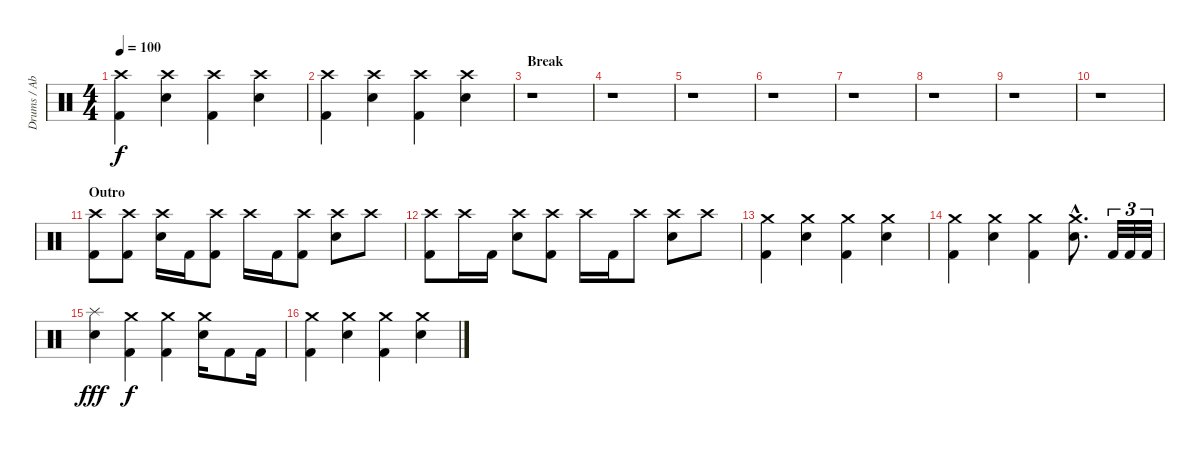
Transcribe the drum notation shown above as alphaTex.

\track ("Drums / Abe Cunningham" "Drums / Ab") {instrument percussion}
\staff {score}
\articulation defaults
\ts (4 4)
\tempo 100
\clef neutral
\ks c
("Crash high (hit)" "Kick (hit) 2").4{dy f} ("Crash high (hit)" "Electric Snare (hit)").4 ("Crash high (hit)" "Kick (hit) 2").4 ("Crash high (hit)" "Electric Snare (hit)").4 |
("Crash high (hit)" "Kick (hit) 2").4 ("Crash high (hit)" "Electric Snare (hit)").4 ("Crash high (hit)" "Kick (hit) 2").4 ("Crash high (hit)" "Electric Snare (hit)").4 |
\section ("" "Break")
r.1 |
r.1 |
r.1 |
r.1 |
r.1 |
r.1 |
r.1 |
r.1 |
\section ("" "Outro")
("Crash high (hit)" "Kick (hit) 2").8 ("Crash high (hit)" "Kick (hit) 2").8 ("Crash high (hit)" "Electric Snare (hit)").16 "Kick (hit) 2".16 ("Crash high (hit)" "Kick (hit) 2").8 "Crash high (hit)".16 "Kick (hit) 2".16 ("Crash high (hit)" "Kick (hit) 2").8 ("Crash high (hit)" "Electric Snare (hit)").8 "Crash high (hit)".8 |
("Crash high (hit)" "Kick (hit) 2").8 "Crash high (hit)".16 "Kick (hit) 2".16 ("Crash high (hit)" "Electric Snare (hit)").8 ("Crash high (hit)" "Kick (hit) 2").8 "Crash high (hit)".16 "Kick (hit) 2".16 "Crash high (hit)".8 ("Crash high (hit)" "Electric Snare (hit)").8 "Crash high (hit)".8 |
("Crash medium (hit)" "Kick (hit) 2").4 ("Crash medium (hit)" "Electric Snare (hit)").4 ("Crash medium (hit)" "Kick (hit) 2").4 ("Crash medium (hit)" "Electric Snare (hit)").4 |
("Crash medium (hit)" "Kick (hit) 2").4 ("Crash medium (hit)" "Electric Snare (hit)").4 ("Crash medium (hit)" "Kick (hit) 2").4 ("Crash medium (hit)"{hac} "Electric Snare (hit)"{hac}).8{d} "Kick (hit) 2".32{tu (3 2)} "Kick (hit) 2".32{tu (3 2)} "Kick (hit) 2".32{tu (3 2)} |
("Splash (hit)" "Electric Snare (hit)").4{dy fff} ("Crash medium (hit)" "Kick (hit) 2").4{dy f} ("Crash medium (hit)" "Kick (hit) 2").4 ("Crash medium (hit)" "Electric Snare (hit)").16 "Kick (hit) 2".8 "Kick (hit) 2".16 |
("Crash medium (hit)" "Kick (hit) 2").4 ("Crash medium (hit)" "Electric Snare (hit)").4 ("Crash medium (hit)" "Kick (hit) 2").4 ("Crash medium (hit)" "Electric Snare (hit)").4
